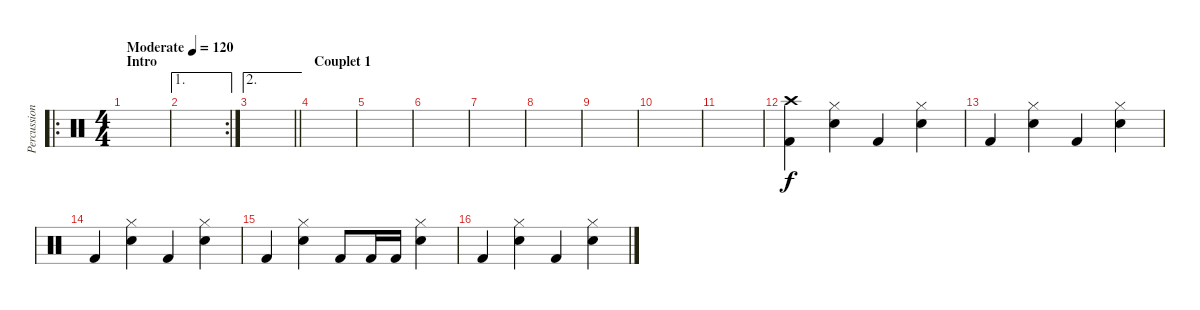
\track ("Percussions" "Percussion") {instrument percussion}
\staff {score}
\articulation defaults
\ro
\ts (4 4)
\section ("" "Intro")
\tempo (120 "Moderate")
\clef neutral
\ks c
|
\ae 1
\rc 2
|
\ae 2
\barLineRight lightlight
|
\section ("" "Couplet 1")
|
|
|
|
|
|
|
|
("Crash high (hit)" "Kick (hit) 2").4 ("Hi-Hat (closed)" "Snare (hit) 2").4 "Kick (hit) 2".4 ("Hi-Hat (closed)" "Snare (hit) 2").4 |
"Kick (hit) 2".4 ("Hi-Hat (closed)" "Snare (hit) 2").4 "Kick (hit) 2".4 ("Hi-Hat (closed)" "Snare (hit) 2").4 |
"Kick (hit) 2".4 ("Hi-Hat (closed)" "Snare (hit) 2").4 "Kick (hit) 2".4 ("Hi-Hat (closed)" "Snare (hit) 2").4 |
"Kick (hit) 2".4 ("Hi-Hat (closed)" "Snare (hit) 2").4 "Kick (hit) 2".8 "Kick (hit) 2".16 "Kick (hit) 2".16 ("Hi-Hat (closed)" "Snare (hit) 2").4 |
"Kick (hit) 2".4 ("Hi-Hat (closed)" "Snare (hit) 2").4 "Kick (hit) 2".4 ("Hi-Hat (closed)" "Snare (hit) 2").4
